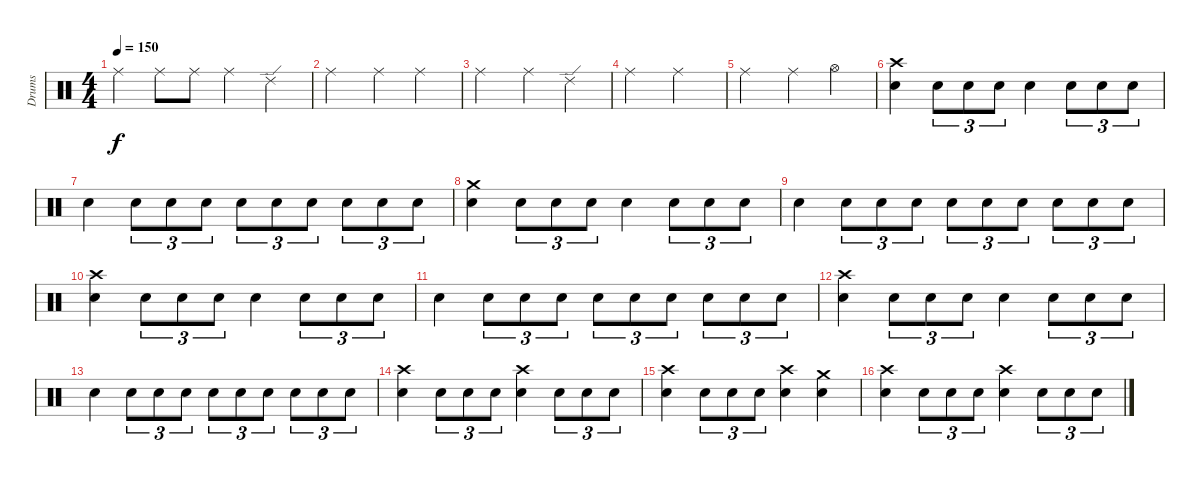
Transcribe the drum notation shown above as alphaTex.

\track ("Drums" "Drums") {instrument percussion}
\staff {score}
\articulation defaults
\ts (4 4)
\tempo 150
\clef neutral
\ks c "Ride (middle)".4{dy f} "Ride (middle)".8 "Ride (middle)".8 "Ride (middle)".4 "Ride (edge) 2".4
|
"Ride (middle)".2 "Ride (middle)".4 "Ride (middle)".4 |
"Ride (middle)".2 "Ride (middle)".4 "Ride (edge) 2".4 |
"Ride (middle)".2 "Ride (middle)".2 |
"Ride (middle)".2 "Ride (middle)".4 "Hi-Hat (open)".4 |
("Crash high (hit)" "Snare (hit) 2").4 "Snare (hit) 2".8{tu (3 2)} "Snare (hit) 2".8{tu (3 2)} "Snare (hit) 2".8{tu (3 2)} "Snare (hit) 2".4 "Snare (hit) 2".8{tu (3 2)} "Snare (hit) 2".8{tu (3 2)} "Snare (hit) 2".8{tu (3 2)} |
"Snare (hit) 2".4 "Snare (hit) 2".8{tu (3 2)} "Snare (hit) 2".8{tu (3 2)} "Snare (hit) 2".8{tu (3 2)} "Snare (hit) 2".8{tu (3 2)} "Snare (hit) 2".8{tu (3 2)} "Snare (hit) 2".8{tu (3 2)} "Snare (hit) 2".8{tu (3 2)} "Snare (hit) 2".8{tu (3 2)} "Snare (hit) 2".8{tu (3 2)} |
("Crash medium (hit)" "Snare (hit) 2").4 "Snare (hit) 2".8{tu (3 2)} "Snare (hit) 2".8{tu (3 2)} "Snare (hit) 2".8{tu (3 2)} "Snare (hit) 2".4 "Snare (hit) 2".8{tu (3 2)} "Snare (hit) 2".8{tu (3 2)} "Snare (hit) 2".8{tu (3 2)} |
"Snare (hit) 2".4 "Snare (hit) 2".8{tu (3 2)} "Snare (hit) 2".8{tu (3 2)} "Snare (hit) 2".8{tu (3 2)} "Snare (hit) 2".8{tu (3 2)} "Snare (hit) 2".8{tu (3 2)} "Snare (hit) 2".8{tu (3 2)} "Snare (hit) 2".8{tu (3 2)} "Snare (hit) 2".8{tu (3 2)} "Snare (hit) 2".8{tu (3 2)} |
("Crash high (hit)" "Snare (hit) 2").4 "Snare (hit) 2".8{tu (3 2)} "Snare (hit) 2".8{tu (3 2)} "Snare (hit) 2".8{tu (3 2)} "Snare (hit) 2".4 "Snare (hit) 2".8{tu (3 2)} "Snare (hit) 2".8{tu (3 2)} "Snare (hit) 2".8{tu (3 2)} |
"Snare (hit) 2".4 "Snare (hit) 2".8{tu (3 2)} "Snare (hit) 2".8{tu (3 2)} "Snare (hit) 2".8{tu (3 2)} "Snare (hit) 2".8{tu (3 2)} "Snare (hit) 2".8{tu (3 2)} "Snare (hit) 2".8{tu (3 2)} "Snare (hit) 2".8{tu (3 2)} "Snare (hit) 2".8{tu (3 2)} "Snare (hit) 2".8{tu (3 2)} |
("Crash high (hit)" "Snare (hit) 2").4 "Snare (hit) 2".8{tu (3 2)} "Snare (hit) 2".8{tu (3 2)} "Snare (hit) 2".8{tu (3 2)} "Snare (hit) 2".4 "Snare (hit) 2".8{tu (3 2)} "Snare (hit) 2".8{tu (3 2)} "Snare (hit) 2".8{tu (3 2)} |
"Snare (hit) 2".4 "Snare (hit) 2".8{tu (3 2)} "Snare (hit) 2".8{tu (3 2)} "Snare (hit) 2".8{tu (3 2)} "Snare (hit) 2".8{tu (3 2)} "Snare (hit) 2".8{tu (3 2)} "Snare (hit) 2".8{tu (3 2)} "Snare (hit) 2".8{tu (3 2)} "Snare (hit) 2".8{tu (3 2)} "Snare (hit) 2".8{tu (3 2)} |
("Crash high (hit)" "Snare (hit) 2").4 "Snare (hit) 2".8{tu (3 2)} "Snare (hit) 2".8{tu (3 2)} "Snare (hit) 2".8{tu (3 2)} ("Crash high (hit)" "Snare (hit) 2").4 "Snare (hit) 2".8{tu (3 2)} "Snare (hit) 2".8{tu (3 2)} "Snare (hit) 2".8{tu (3 2)} |
("Crash high (hit)" "Snare (hit) 2").4 "Snare (hit) 2".8{tu (3 2)} "Snare (hit) 2".8{tu (3 2)} "Snare (hit) 2".8{tu (3 2)} ("Crash high (hit)" "Snare (hit) 2").4 ("Crash medium (hit)" "Snare (hit) 2").4 |
("Crash high (hit)" "Snare (hit) 2").4 "Snare (hit) 2".8{tu (3 2)} "Snare (hit) 2".8{tu (3 2)} "Snare (hit) 2".8{tu (3 2)} ("Crash high (hit)" "Snare (hit) 2").4 "Snare (hit) 2".8{tu (3 2)} "Snare (hit) 2".8{tu (3 2)} "Snare (hit) 2".8{tu (3 2)}
